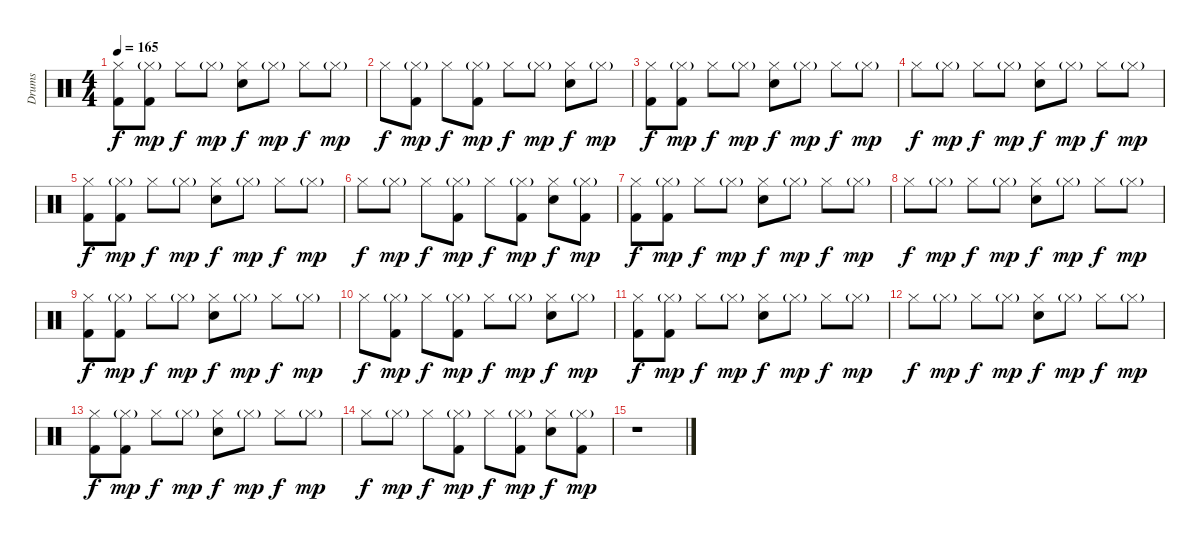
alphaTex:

\track ("Drums" "Drums") {instrument percussion}
\staff {score}
\articulation defaults
\ts (4 4)
\tempo 165
\clef neutral
\ks c
("Hi-Hat (closed)" "Kick (hit) 2").8{dy f} ("Hi-Hat (closed)"{g} "Kick (hit) 2").8{dy mp} "Hi-Hat (closed)".8{dy f} "Hi-Hat (closed)"{g}.8{dy mp} ("Hi-Hat (closed)" "Electric Snare (hit)").8{dy f} "Hi-Hat (closed)"{g}.8{dy mp} "Hi-Hat (closed)".8{dy f} "Hi-Hat (closed)"{g}.8{dy mp} |
"Hi-Hat (closed)".8{dy f} ("Hi-Hat (closed)"{g} "Kick (hit) 2").8{dy mp} "Hi-Hat (closed)".8{dy f} ("Hi-Hat (closed)"{g} "Kick (hit) 2").8{dy mp} "Hi-Hat (closed)".8{dy f} "Hi-Hat (closed)"{g}.8{dy mp} ("Hi-Hat (closed)" "Electric Snare (hit)").8{dy f} "Hi-Hat (closed)"{g}.8{dy mp} |
("Hi-Hat (closed)" "Kick (hit) 2").8{dy f} ("Hi-Hat (closed)"{g} "Kick (hit) 2").8{dy mp} "Hi-Hat (closed)".8{dy f} "Hi-Hat (closed)"{g}.8{dy mp} ("Hi-Hat (closed)" "Electric Snare (hit)").8{dy f} "Hi-Hat (closed)"{g}.8{dy mp} "Hi-Hat (closed)".8{dy f} "Hi-Hat (closed)"{g}.8{dy mp} |
"Hi-Hat (closed)".8{dy f} "Hi-Hat (closed)"{g}.8{dy mp} "Hi-Hat (closed)".8{dy f} "Hi-Hat (closed)"{g}.8{dy mp} ("Hi-Hat (closed)" "Electric Snare (hit)").8{dy f} "Hi-Hat (closed)"{g}.8{dy mp} "Hi-Hat (closed)".8{dy f} "Hi-Hat (closed)"{g}.8{dy mp} |
("Hi-Hat (closed)" "Kick (hit) 2").8{dy f} ("Hi-Hat (closed)"{g} "Kick (hit) 2").8{dy mp} "Hi-Hat (closed)".8{dy f} "Hi-Hat (closed)"{g}.8{dy mp} ("Hi-Hat (closed)" "Electric Snare (hit)").8{dy f} "Hi-Hat (closed)"{g}.8{dy mp} "Hi-Hat (closed)".8{dy f} "Hi-Hat (closed)"{g}.8{dy mp} |
"Hi-Hat (closed)".8{dy f} "Hi-Hat (closed)"{g}.8{dy mp} "Hi-Hat (closed)".8{dy f} ("Hi-Hat (closed)"{g} "Kick (hit) 2").8{dy mp} "Hi-Hat (closed)".8{dy f} ("Hi-Hat (closed)"{g} "Kick (hit) 2").8{dy mp} ("Hi-Hat (closed)" "Electric Snare (hit)").8{dy f} ("Hi-Hat (closed)"{g} "Kick (hit) 2").8{dy mp} |
("Hi-Hat (closed)" "Kick (hit) 2").8{dy f volume 9} ("Hi-Hat (closed)"{g} "Kick (hit) 2").8{dy mp} "Hi-Hat (closed)".8{dy f} "Hi-Hat (closed)"{g}.8{dy mp} ("Hi-Hat (closed)" "Electric Snare (hit)").8{dy f} "Hi-Hat (closed)"{g}.8{dy mp} "Hi-Hat (closed)".8{dy f} "Hi-Hat (closed)"{g}.8{dy mp} |
"Hi-Hat (closed)".8{dy f} "Hi-Hat (closed)"{g}.8{dy mp} "Hi-Hat (closed)".8{dy f} "Hi-Hat (closed)"{g}.8{dy mp} ("Hi-Hat (closed)" "Electric Snare (hit)").8{dy f} "Hi-Hat (closed)"{g}.8{dy mp} "Hi-Hat (closed)".8{dy f} "Hi-Hat (closed)"{g}.8{dy mp} |
("Hi-Hat (closed)" "Kick (hit) 2").8{dy f} ("Hi-Hat (closed)"{g} "Kick (hit) 2").8{dy mp} "Hi-Hat (closed)".8{dy f} "Hi-Hat (closed)"{g}.8{dy mp} ("Hi-Hat (closed)" "Electric Snare (hit)").8{dy f} "Hi-Hat (closed)"{g}.8{dy mp} "Hi-Hat (closed)".8{dy f} "Hi-Hat (closed)"{g}.8{dy mp} |
"Hi-Hat (closed)".8{dy f} ("Hi-Hat (closed)"{g} "Kick (hit) 2").8{dy mp} "Hi-Hat (closed)".8{dy f} ("Hi-Hat (closed)"{g} "Kick (hit) 2").8{dy mp} "Hi-Hat (closed)".8{dy f} "Hi-Hat (closed)"{g}.8{dy mp} ("Hi-Hat (closed)" "Electric Snare (hit)").8{dy f} "Hi-Hat (closed)"{g}.8{dy mp} |
("Hi-Hat (closed)" "Kick (hit) 2").8{dy f volume 0} ("Hi-Hat (closed)"{g} "Kick (hit) 2").8{dy mp} "Hi-Hat (closed)".8{dy f} "Hi-Hat (closed)"{g}.8{dy mp} ("Hi-Hat (closed)" "Electric Snare (hit)").8{dy f} "Hi-Hat (closed)"{g}.8{dy mp} "Hi-Hat (closed)".8{dy f} "Hi-Hat (closed)"{g}.8{dy mp} |
"Hi-Hat (closed)".8{dy f} "Hi-Hat (closed)"{g}.8{dy mp} "Hi-Hat (closed)".8{dy f} "Hi-Hat (closed)"{g}.8{dy mp} ("Hi-Hat (closed)" "Electric Snare (hit)").8{dy f} "Hi-Hat (closed)"{g}.8{dy mp} "Hi-Hat (closed)".8{dy f} "Hi-Hat (closed)"{g}.8{dy mp} |
("Hi-Hat (closed)" "Kick (hit) 2").8{dy f} ("Hi-Hat (closed)"{g} "Kick (hit) 2").8{dy mp} "Hi-Hat (closed)".8{dy f} "Hi-Hat (closed)"{g}.8{dy mp} ("Hi-Hat (closed)" "Electric Snare (hit)").8{dy f} "Hi-Hat (closed)"{g}.8{dy mp} "Hi-Hat (closed)".8{dy f} "Hi-Hat (closed)"{g}.8{dy mp} |
"Hi-Hat (closed)".8{dy f} "Hi-Hat (closed)"{g}.8{dy mp} "Hi-Hat (closed)".8{dy f} ("Hi-Hat (closed)"{g} "Kick (hit) 2").8{dy mp} "Hi-Hat (closed)".8{dy f} ("Hi-Hat (closed)"{g} "Kick (hit) 2").8{dy mp} ("Hi-Hat (closed)" "Electric Snare (hit)").8{dy f} ("Hi-Hat (closed)"{g} "Kick (hit) 2").8{dy mp} |
r.1
